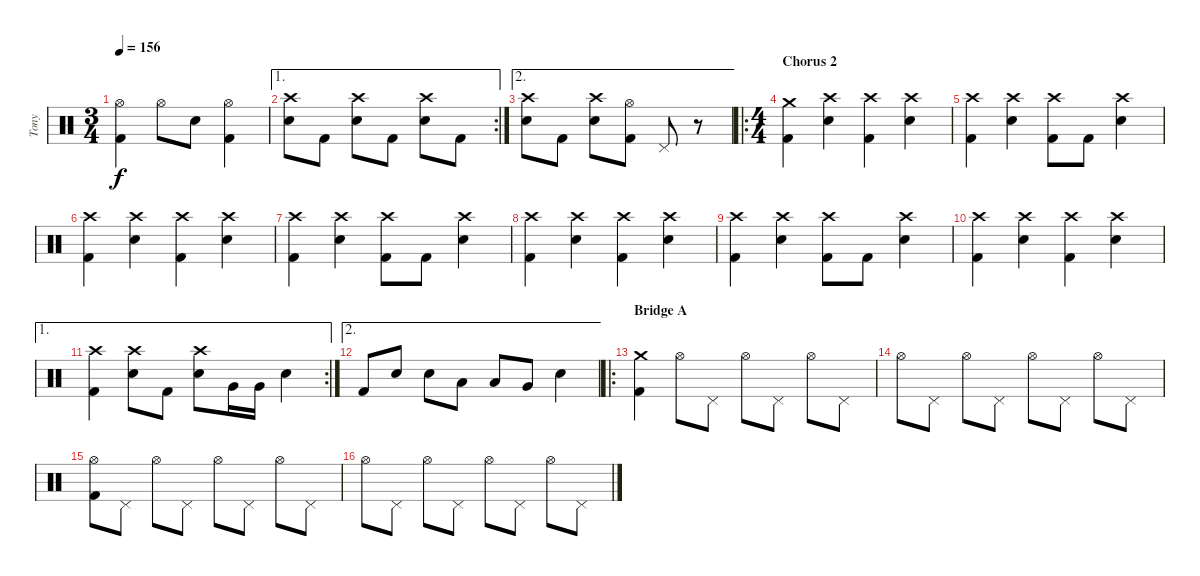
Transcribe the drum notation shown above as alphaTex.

\track ("Tony" "Tony") {instrument percussion}
\staff {score}
\articulation defaults
\ts (3 4)
\tempo 156
\clef neutral
\ks c
("Hi-Hat (open)" "Kick (hit) 2").4{dy f} "Hi-Hat (open)".8 "Electric Snare (hit)".8 ("Hi-Hat (open)" "Kick (hit) 2").4 |
\ae 1
\rc 2
("Crash high (hit)" "Electric Snare (hit)").8 "Kick (hit) 2".8 ("Crash high (hit)" "Electric Snare (hit)").8 "Kick (hit) 2".8 ("Crash high (hit)" "Electric Snare (hit)").8 "Kick (hit) 2".8 |
\ae 2
("Crash high (hit)" "Electric Snare (hit)").8 "Kick (hit) 2".8 ("Crash high (hit)" "Electric Snare (hit)").8 ("Hi-Hat (open)" "Kick (hit) 2").8 "Pedal Hi-Hat (hit)".8 r.8 |
\ro
\ts (4 4)
\section ("" "Chorus 2")
("Crash medium (hit)" "Kick (hit) 2").4 ("Crash high (hit)" "Electric Snare (hit)").4 ("Crash high (hit)" "Kick (hit) 2").4 ("Crash high (hit)" "Electric Snare (hit)").4 |
("Crash high (hit)" "Kick (hit) 2").4 ("Crash high (hit)" "Electric Snare (hit)").4 ("Crash high (hit)" "Kick (hit) 2").8 "Kick (hit) 2".8 ("Crash high (hit)" "Electric Snare (hit)").4 |
("Crash high (hit)" "Kick (hit) 2").4 ("Crash high (hit)" "Electric Snare (hit)").4 ("Crash high (hit)" "Kick (hit) 2").4 ("Crash high (hit)" "Electric Snare (hit)").4 |
("Crash high (hit)" "Kick (hit) 2").4 ("Crash high (hit)" "Electric Snare (hit)").4 ("Crash high (hit)" "Kick (hit) 2").8 "Kick (hit) 2".8 ("Crash high (hit)" "Electric Snare (hit)").4 |
("Crash high (hit)" "Kick (hit) 2").4 ("Crash high (hit)" "Electric Snare (hit)").4 ("Crash high (hit)" "Kick (hit) 2").4 ("Crash high (hit)" "Electric Snare (hit)").4 |
("Crash high (hit)" "Kick (hit) 2").4 ("Crash high (hit)" "Electric Snare (hit)").4 ("Crash high (hit)" "Kick (hit) 2").8 "Kick (hit) 2".8 ("Crash high (hit)" "Electric Snare (hit)").4 |
("Crash high (hit)" "Kick (hit) 2").4 ("Crash high (hit)" "Electric Snare (hit)").4 ("Crash high (hit)" "Kick (hit) 2").4 ("Crash high (hit)" "Electric Snare (hit)").4 |
\ae 1
\rc 2
("Crash high (hit)" "Kick (hit) 2").4 ("Crash high (hit)" "Electric Snare (hit)").8 "Kick (hit) 2".8 ("Crash high (hit)" "Electric Snare (hit)").8 "Very Low Tom (hit)".16 "Very Low Tom (hit)".16 "Electric Snare (hit)".4 |
\ae 2 "Kick (hit) 2".8 "Electric Snare (hit)".8 "Electric Snare (hit)".8 "Low Tom (hit)".8 "Low Tom (hit)".8 "Very Low Tom (hit)".8 "Electric Snare (hit)".4
|
\ro
\section ("" "Bridge A")
("Crash medium (hit)" "Kick (hit) 2").4 "Hi-Hat (open)".8 "Pedal Hi-Hat (hit)".8 "Hi-Hat (open)".8 "Pedal Hi-Hat (hit)".8 "Hi-Hat (open)".8 "Pedal Hi-Hat (hit)".8 |
"Hi-Hat (open)".8 "Pedal Hi-Hat (hit)".8 "Hi-Hat (open)".8 "Pedal Hi-Hat (hit)".8 "Hi-Hat (open)".8 "Pedal Hi-Hat (hit)".8 "Hi-Hat (open)".8 "Pedal Hi-Hat (hit)".8 |
("Hi-Hat (open)" "Kick (hit) 2").8 "Pedal Hi-Hat (hit)".8 "Hi-Hat (open)".8 "Pedal Hi-Hat (hit)".8 "Hi-Hat (open)".8 "Pedal Hi-Hat (hit)".8 "Hi-Hat (open)".8 "Pedal Hi-Hat (hit)".8 |
"Hi-Hat (open)".8 "Pedal Hi-Hat (hit)".8 "Hi-Hat (open)".8 "Pedal Hi-Hat (hit)".8 "Hi-Hat (open)".8 "Pedal Hi-Hat (hit)".8 "Hi-Hat (open)".8 "Pedal Hi-Hat (hit)".8
